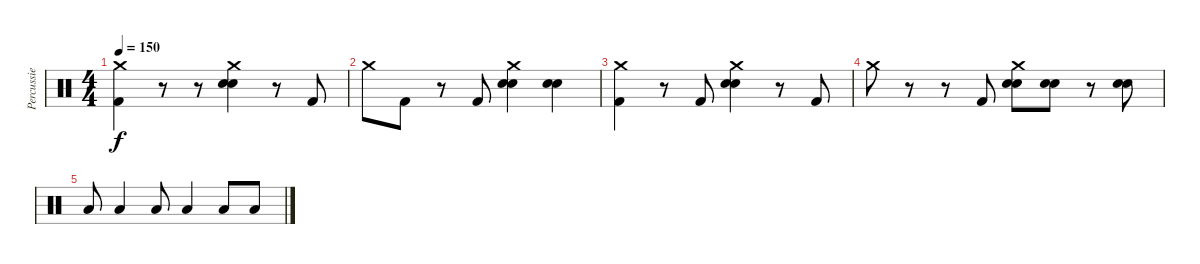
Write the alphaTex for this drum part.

\track ("Percussie" "Percussie") {instrument percussion}
\staff {score}
\articulation defaults
\ts (4 4)
\tempo 150
\clef neutral
\ks c
("Crash medium (hit)" "Kick (hit) 2").4{dy f} r.8 r.8 ("Crash medium (hit)" "Electric Snare (hit)" "Snare (hit) 2").4 r.8 "Kick (hit) 2".8 |
"Crash medium (hit)".8 "Kick (hit) 2".8 r.8 "Kick (hit) 2".8 ("Crash medium (hit)" "Electric Snare (hit)" "Snare (hit) 2").4 ("Electric Snare (hit)" "Snare (hit) 2").4 |
("Crash medium (hit)" "Kick (hit) 2").4 r.8 "Kick (hit) 2".8 ("Crash medium (hit)" "Electric Snare (hit)" "Snare (hit) 2").4 r.8 "Kick (hit) 2".8 |
"Crash medium (hit)".8 r.8 r.8 "Kick (hit) 2".8 ("Crash medium (hit)" "Electric Snare (hit)" "Snare (hit) 2").8 ("Electric Snare (hit)" "Snare (hit) 2").8 r.8 ("Electric Snare (hit)" "Snare (hit) 2").8 |
"Low Floor Tom (hit)".8 "Low Floor Tom (hit)".4 "Low Floor Tom (hit)".8 "Low Floor Tom (hit)".4 "Low Floor Tom (hit)".8 "Low Floor Tom (hit)".8
